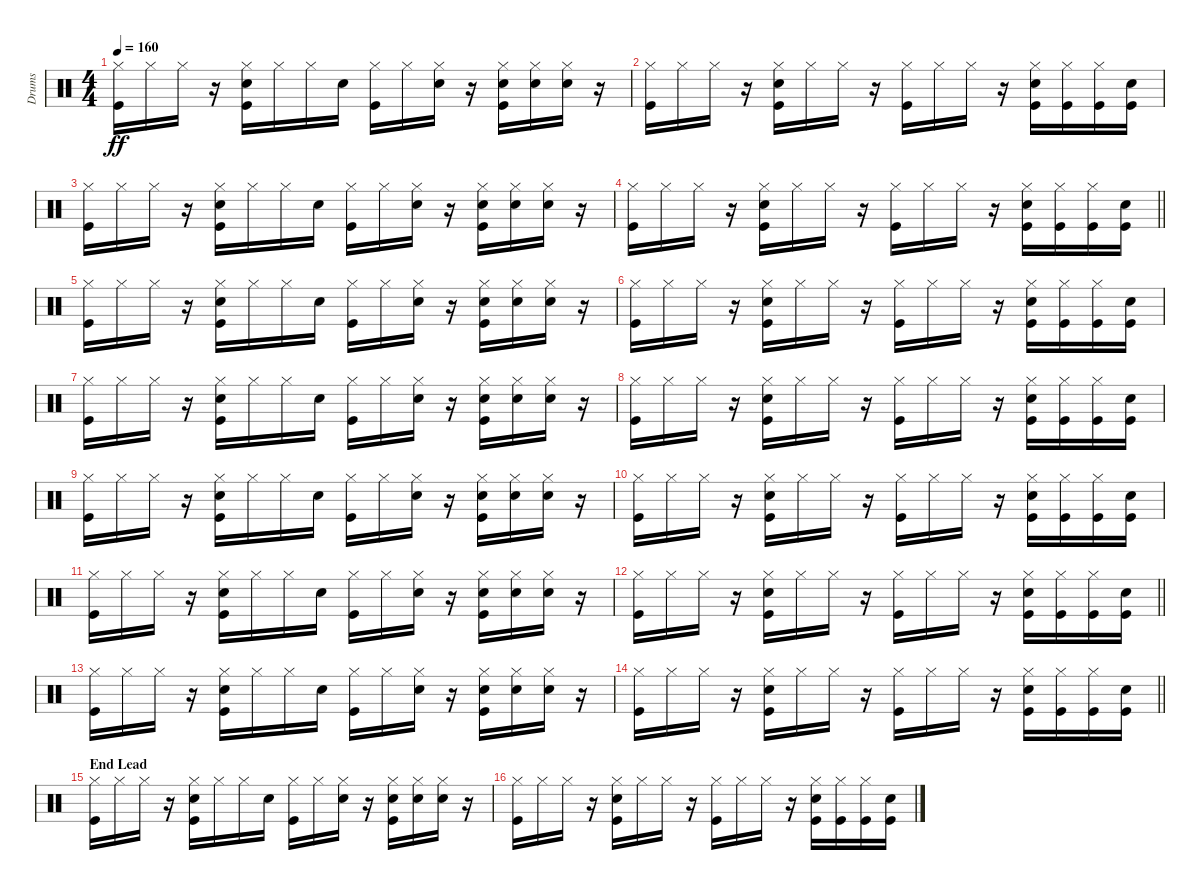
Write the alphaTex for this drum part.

\track ("Drums" "Drums") {instrument percussion}
\staff {score}
\articulation defaults
\ts (4 4)
\tempo 160
\clef neutral
\ks c
("Kick (hit)" "Hi-Hat (closed)").16{dy ff} "Hi-Hat (closed)".16 "Hi-Hat (closed)".16 r.16 ("Kick (hit)" "Snare (hit) 2" "Hi-Hat (closed)").16 "Hi-Hat (closed)".16 "Hi-Hat (closed)".16 "Electric Snare (hit)".16 ("Kick (hit)" "Hi-Hat (closed)").16 "Hi-Hat (closed)".16 ("Electric Snare (hit)" "Hi-Hat (closed)").16 r.16 ("Kick (hit)" "Snare (hit) 2" "Hi-Hat (closed)").16 ("Electric Snare (hit)" "Hi-Hat (closed)").16 ("Electric Snare (hit)" "Hi-Hat (closed)").16 r.16 |
("Kick (hit)" "Hi-Hat (closed)").16 "Hi-Hat (closed)".16 "Hi-Hat (closed)".16 r.16 ("Kick (hit)" "Snare (hit) 2" "Hi-Hat (closed)").16 "Hi-Hat (closed)".16 "Hi-Hat (closed)".16 r.16 ("Kick (hit)" "Hi-Hat (closed)").16 "Hi-Hat (closed)".16 "Hi-Hat (closed)".16 r.16 ("Kick (hit)" "Snare (hit) 2" "Hi-Hat (closed)").16 ("Kick (hit)" "Hi-Hat (closed)").16 ("Kick (hit)" "Hi-Hat (closed)").16 ("Kick (hit)" "Snare (hit) 2").16 |
("Kick (hit)" "Hi-Hat (closed)").16 "Hi-Hat (closed)".16 "Hi-Hat (closed)".16 r.16 ("Kick (hit)" "Snare (hit) 2" "Hi-Hat (closed)").16 "Hi-Hat (closed)".16 "Hi-Hat (closed)".16 "Electric Snare (hit)".16 ("Kick (hit)" "Hi-Hat (closed)").16 "Hi-Hat (closed)".16 ("Electric Snare (hit)" "Hi-Hat (closed)").16 r.16 ("Kick (hit)" "Snare (hit) 2" "Hi-Hat (closed)").16 ("Electric Snare (hit)" "Hi-Hat (closed)").16 ("Electric Snare (hit)" "Hi-Hat (closed)").16 r.16 |
\barLineRight lightlight
("Kick (hit)" "Hi-Hat (closed)").16 "Hi-Hat (closed)".16 "Hi-Hat (closed)".16 r.16 ("Kick (hit)" "Snare (hit) 2" "Hi-Hat (closed)").16 "Hi-Hat (closed)".16 "Hi-Hat (closed)".16 r.16 ("Kick (hit)" "Hi-Hat (closed)").16 "Hi-Hat (closed)".16 "Hi-Hat (closed)".16 r.16 ("Kick (hit)" "Snare (hit) 2" "Hi-Hat (closed)").16 ("Kick (hit)" "Hi-Hat (closed)").16 ("Kick (hit)" "Hi-Hat (closed)").16 ("Kick (hit)" "Snare (hit) 2").16 |
("Kick (hit)" "Hi-Hat (closed)").16 "Hi-Hat (closed)".16 "Hi-Hat (closed)".16 r.16 ("Kick (hit)" "Snare (hit) 2" "Hi-Hat (closed)").16 "Hi-Hat (closed)".16 "Hi-Hat (closed)".16 "Electric Snare (hit)".16 ("Kick (hit)" "Hi-Hat (closed)").16 "Hi-Hat (closed)".16 ("Electric Snare (hit)" "Hi-Hat (closed)").16 r.16 ("Kick (hit)" "Snare (hit) 2" "Hi-Hat (closed)").16 ("Electric Snare (hit)" "Hi-Hat (closed)").16 ("Electric Snare (hit)" "Hi-Hat (closed)").16 r.16 |
("Kick (hit)" "Hi-Hat (closed)").16 "Hi-Hat (closed)".16 "Hi-Hat (closed)".16 r.16 ("Kick (hit)" "Snare (hit) 2" "Hi-Hat (closed)").16 "Hi-Hat (closed)".16 "Hi-Hat (closed)".16 r.16 ("Kick (hit)" "Hi-Hat (closed)").16 "Hi-Hat (closed)".16 "Hi-Hat (closed)".16 r.16 ("Kick (hit)" "Snare (hit) 2" "Hi-Hat (closed)").16 ("Kick (hit)" "Hi-Hat (closed)").16 ("Kick (hit)" "Hi-Hat (closed)").16 ("Kick (hit)" "Snare (hit) 2").16 |
("Kick (hit)" "Hi-Hat (closed)").16 "Hi-Hat (closed)".16 "Hi-Hat (closed)".16 r.16 ("Kick (hit)" "Snare (hit) 2" "Hi-Hat (closed)").16 "Hi-Hat (closed)".16 "Hi-Hat (closed)".16 "Electric Snare (hit)".16 ("Kick (hit)" "Hi-Hat (closed)").16 "Hi-Hat (closed)".16 ("Electric Snare (hit)" "Hi-Hat (closed)").16 r.16 ("Kick (hit)" "Snare (hit) 2" "Hi-Hat (closed)").16 ("Electric Snare (hit)" "Hi-Hat (closed)").16 ("Electric Snare (hit)" "Hi-Hat (closed)").16 r.16 |
("Kick (hit)" "Hi-Hat (closed)").16 "Hi-Hat (closed)".16 "Hi-Hat (closed)".16 r.16 ("Kick (hit)" "Snare (hit) 2" "Hi-Hat (closed)").16 "Hi-Hat (closed)".16 "Hi-Hat (closed)".16 r.16 ("Kick (hit)" "Hi-Hat (closed)").16 "Hi-Hat (closed)".16 "Hi-Hat (closed)".16 r.16 ("Kick (hit)" "Snare (hit) 2" "Hi-Hat (closed)").16 ("Kick (hit)" "Hi-Hat (closed)").16 ("Kick (hit)" "Hi-Hat (closed)").16 ("Kick (hit)" "Snare (hit) 2").16 |
("Kick (hit)" "Hi-Hat (closed)").16 "Hi-Hat (closed)".16 "Hi-Hat (closed)".16 r.16 ("Kick (hit)" "Snare (hit) 2" "Hi-Hat (closed)").16 "Hi-Hat (closed)".16 "Hi-Hat (closed)".16 "Electric Snare (hit)".16 ("Kick (hit)" "Hi-Hat (closed)").16 "Hi-Hat (closed)".16 ("Electric Snare (hit)" "Hi-Hat (closed)").16 r.16 ("Kick (hit)" "Snare (hit) 2" "Hi-Hat (closed)").16 ("Electric Snare (hit)" "Hi-Hat (closed)").16 ("Electric Snare (hit)" "Hi-Hat (closed)").16 r.16 |
("Kick (hit)" "Hi-Hat (closed)").16 "Hi-Hat (closed)".16 "Hi-Hat (closed)".16 r.16 ("Kick (hit)" "Snare (hit) 2" "Hi-Hat (closed)").16 "Hi-Hat (closed)".16 "Hi-Hat (closed)".16 r.16 ("Kick (hit)" "Hi-Hat (closed)").16 "Hi-Hat (closed)".16 "Hi-Hat (closed)".16 r.16 ("Kick (hit)" "Snare (hit) 2" "Hi-Hat (closed)").16 ("Kick (hit)" "Hi-Hat (closed)").16 ("Kick (hit)" "Hi-Hat (closed)").16 ("Kick (hit)" "Snare (hit) 2").16 |
("Kick (hit)" "Hi-Hat (closed)").16 "Hi-Hat (closed)".16 "Hi-Hat (closed)".16 r.16 ("Kick (hit)" "Snare (hit) 2" "Hi-Hat (closed)").16 "Hi-Hat (closed)".16 "Hi-Hat (closed)".16 "Electric Snare (hit)".16 ("Kick (hit)" "Hi-Hat (closed)").16 "Hi-Hat (closed)".16 ("Electric Snare (hit)" "Hi-Hat (closed)").16 r.16 ("Kick (hit)" "Snare (hit) 2" "Hi-Hat (closed)").16 ("Electric Snare (hit)" "Hi-Hat (closed)").16 ("Electric Snare (hit)" "Hi-Hat (closed)").16 r.16 |
\barLineRight lightlight
("Kick (hit)" "Hi-Hat (closed)").16 "Hi-Hat (closed)".16 "Hi-Hat (closed)".16 r.16 ("Kick (hit)" "Snare (hit) 2" "Hi-Hat (closed)").16 "Hi-Hat (closed)".16 "Hi-Hat (closed)".16 r.16 ("Kick (hit)" "Hi-Hat (closed)").16 "Hi-Hat (closed)".16 "Hi-Hat (closed)".16 r.16 ("Kick (hit)" "Snare (hit) 2" "Hi-Hat (closed)").16 ("Kick (hit)" "Hi-Hat (closed)").16 ("Kick (hit)" "Hi-Hat (closed)").16 ("Kick (hit)" "Snare (hit) 2").16 |
("Kick (hit)" "Hi-Hat (closed)").16 "Hi-Hat (closed)".16 "Hi-Hat (closed)".16 r.16 ("Kick (hit)" "Snare (hit) 2" "Hi-Hat (closed)").16 "Hi-Hat (closed)".16 "Hi-Hat (closed)".16 "Electric Snare (hit)".16 ("Kick (hit)" "Hi-Hat (closed)").16 "Hi-Hat (closed)".16 ("Electric Snare (hit)" "Hi-Hat (closed)").16 r.16 ("Kick (hit)" "Snare (hit) 2" "Hi-Hat (closed)").16 ("Electric Snare (hit)" "Hi-Hat (closed)").16 ("Electric Snare (hit)" "Hi-Hat (closed)").16 r.16 |
\barLineRight lightlight
("Kick (hit)" "Hi-Hat (closed)").16 "Hi-Hat (closed)".16 "Hi-Hat (closed)".16 r.16 ("Kick (hit)" "Snare (hit) 2" "Hi-Hat (closed)").16 "Hi-Hat (closed)".16 "Hi-Hat (closed)".16 r.16 ("Kick (hit)" "Hi-Hat (closed)").16 "Hi-Hat (closed)".16 "Hi-Hat (closed)".16 r.16 ("Kick (hit)" "Snare (hit) 2" "Hi-Hat (closed)").16 ("Kick (hit)" "Hi-Hat (closed)").16 ("Kick (hit)" "Hi-Hat (closed)").16 ("Kick (hit)" "Snare (hit) 2").16 |
\section ("" "End Lead")
("Kick (hit)" "Hi-Hat (closed)").16 "Hi-Hat (closed)".16 "Hi-Hat (closed)".16 r.16 ("Kick (hit)" "Snare (hit) 2" "Hi-Hat (closed)").16 "Hi-Hat (closed)".16 "Hi-Hat (closed)".16 "Electric Snare (hit)".16 ("Kick (hit)" "Hi-Hat (closed)").16 "Hi-Hat (closed)".16 ("Electric Snare (hit)" "Hi-Hat (closed)").16 r.16 ("Kick (hit)" "Snare (hit) 2" "Hi-Hat (closed)").16 ("Electric Snare (hit)" "Hi-Hat (closed)").16 ("Electric Snare (hit)" "Hi-Hat (closed)").16 r.16 |
("Kick (hit)" "Hi-Hat (closed)").16 "Hi-Hat (closed)".16 "Hi-Hat (closed)".16 r.16 ("Kick (hit)" "Snare (hit) 2" "Hi-Hat (closed)").16 "Hi-Hat (closed)".16 "Hi-Hat (closed)".16 r.16 ("Kick (hit)" "Hi-Hat (closed)").16 "Hi-Hat (closed)".16 "Hi-Hat (closed)".16 r.16 ("Kick (hit)" "Snare (hit) 2" "Hi-Hat (closed)").16 ("Kick (hit)" "Hi-Hat (closed)").16 ("Kick (hit)" "Hi-Hat (closed)").16 ("Kick (hit)" "Snare (hit) 2").16
